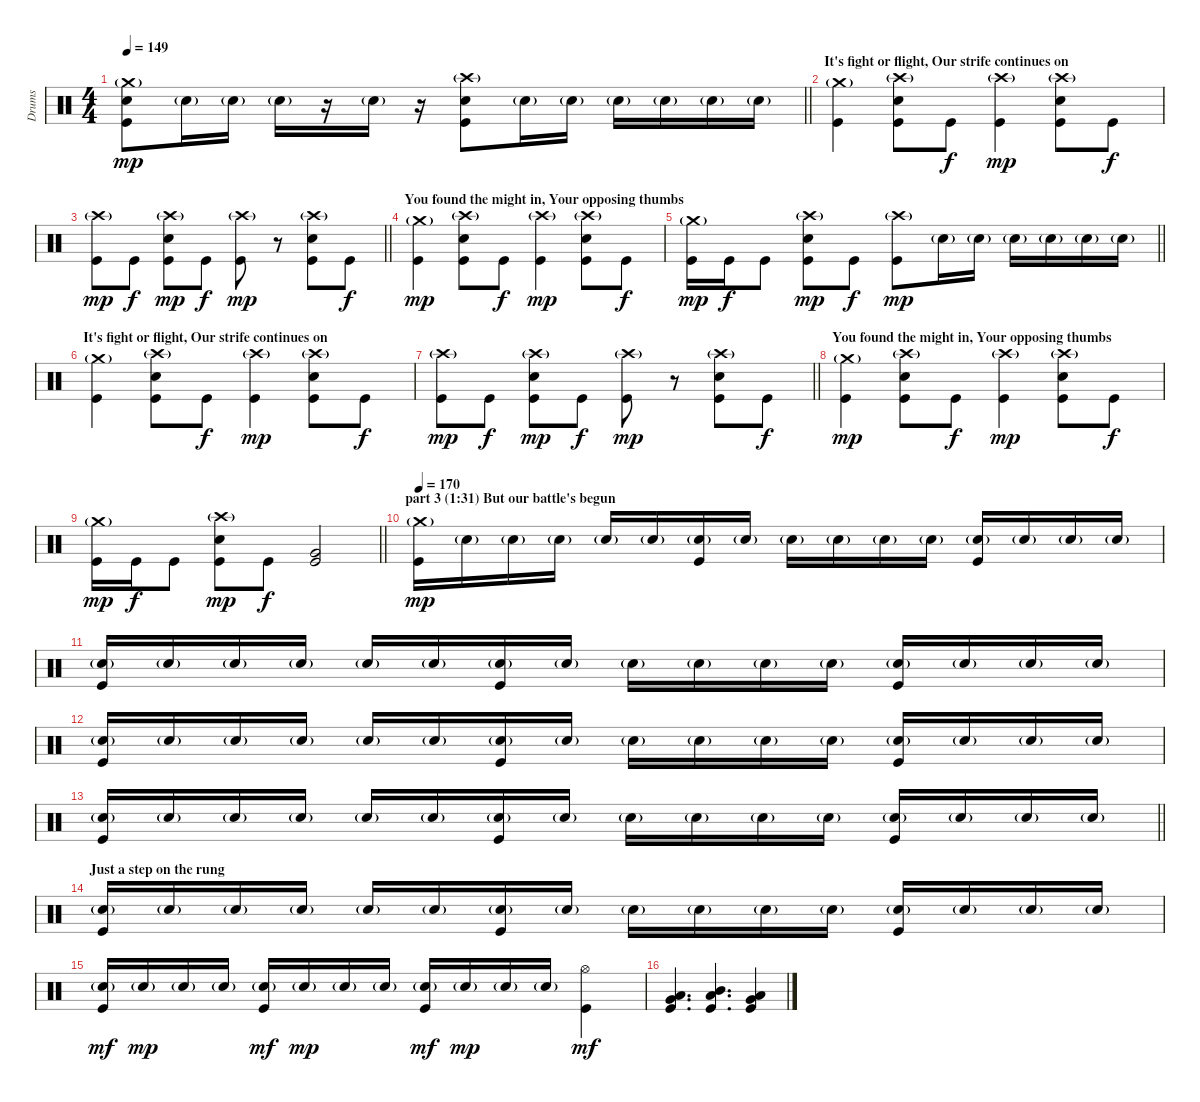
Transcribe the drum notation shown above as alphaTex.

\track ("Drums" "Drums") {instrument percussion}
\staff {score}
\articulation defaults
\ts (4 4)
\tempo 149
\clef neutral
\barLineRight lightlight
\ks c
("Crash medium (hit)"{g} "Snare (hit) 2" "Kick (hit)").8{dy mp} "Snare (hit) 2"{g}.16 "Snare (hit) 2"{g}.16 "Snare (hit) 2"{g}.16 r.16 "Snare (hit) 2"{g}.16 r.16 ("Crash high (hit)"{g} "Snare (hit) 2" "Kick (hit)").8 "Snare (hit) 2"{g}.16 "Snare (hit) 2"{g}.16 "Snare (hit) 2"{g}.16 "Snare (hit) 2"{g}.16 "Snare (hit) 2"{g}.16 "Snare (hit) 2"{g}.16 |
\section ("" "It's fight or flight, Our strife continues on ")
("Crash medium (hit)"{g} "Kick (hit)").4 ("Crash high (hit)"{g} "Snare (hit) 2" "Kick (hit)").8 "Kick (hit)".8{dy f} ("Crash high (hit)"{g} "Kick (hit)").4{dy mp} ("Crash high (hit)"{g} "Snare (hit) 2" "Kick (hit)").8 "Kick (hit)".8{dy f} |
\barLineRight lightlight
("Crash high (hit)"{g} "Kick (hit)").8{dy mp} "Kick (hit)".8{dy f} ("Crash high (hit)"{g} "Snare (hit) 2" "Kick (hit)").8{dy mp} "Kick (hit)".8{dy f} ("Crash high (hit)"{g} "Kick (hit)").8{dy mp} r.8 ("Crash high (hit)"{g} "Snare (hit) 2" "Kick (hit)").8 "Kick (hit)".8{dy f} |
\section ("" "You found the might in, Your opposing thumbs")
("Crash medium (hit)"{g} "Kick (hit)").4{dy mp} ("Crash high (hit)"{g} "Snare (hit) 2" "Kick (hit)").8 "Kick (hit)".8{dy f} ("Crash high (hit)"{g} "Kick (hit)").4{dy mp} ("Crash high (hit)"{g} "Snare (hit) 2" "Kick (hit)").8 "Kick (hit)".8{dy f} |
\barLineRight lightlight
("Crash medium (hit)"{g} "Kick (hit)").16{dy mp} "Kick (hit)".16{dy f} "Kick (hit)".8 ("Crash high (hit)"{g} "Snare (hit) 2" "Kick (hit)").8{dy mp} "Kick (hit)".8{dy f} ("Crash high (hit)"{g} "Kick (hit)").8{dy mp} "Snare (hit) 2"{g}.16 "Snare (hit) 2"{g}.16 "Snare (hit) 2"{g}.16 "Snare (hit) 2"{g}.16 "Snare (hit) 2"{g}.16 "Snare (hit) 2"{g}.16 |
\section ("" "It's fight or flight, Our strife continues on ")
("Crash medium (hit)"{g} "Kick (hit)").4 ("Crash high (hit)"{g} "Snare (hit) 2" "Kick (hit)").8 "Kick (hit)".8{dy f} ("Crash high (hit)"{g} "Kick (hit)").4{dy mp} ("Crash high (hit)"{g} "Snare (hit) 2" "Kick (hit)").8 "Kick (hit)".8{dy f} |
\barLineRight lightlight
("Crash high (hit)"{g} "Kick (hit)").8{dy mp} "Kick (hit)".8{dy f} ("Crash high (hit)"{g} "Snare (hit) 2" "Kick (hit)").8{dy mp} "Kick (hit)".8{dy f} ("Crash high (hit)"{g} "Kick (hit)").8{dy mp} r.8 ("Crash high (hit)"{g} "Snare (hit) 2" "Kick (hit)").8 "Kick (hit)".8{dy f} |
\section ("" "You found the might in, Your opposing thumbs")
("Crash medium (hit)"{g} "Kick (hit)").4{dy mp} ("Crash high (hit)"{g} "Snare (hit) 2" "Kick (hit)").8 "Kick (hit)".8{dy f} ("Crash high (hit)"{g} "Kick (hit)").4{dy mp} ("Crash high (hit)"{g} "Snare (hit) 2" "Kick (hit)").8 "Kick (hit)".8{dy f} |
\barLineRight lightlight
("Crash medium (hit)"{g} "Kick (hit)").16{dy mp} "Kick (hit)".16{dy f} "Kick (hit)".8 ("Crash high (hit)"{g} "Snare (hit) 2" "Kick (hit)").8{dy mp} "Kick (hit)".8{dy f} ("Very Low Tom (hit)" "Kick (hit)").2 |
\section ("" "part 3 (1:31) But our battle's begun")
\tempo 170
("Crash medium (hit)"{g} "Kick (hit)").16{dy mp} "Snare (hit) 2"{g}.16 "Snare (hit) 2"{g}.16 "Snare (hit) 2"{g}.16 "Snare (hit) 2"{g}.16 "Snare (hit) 2"{g}.16 ("Snare (hit) 2"{g} "Kick (hit)").16 "Snare (hit) 2"{g}.16 "Snare (hit) 2"{g}.16 "Snare (hit) 2"{g}.16 "Snare (hit) 2"{g}.16 "Snare (hit) 2"{g}.16 ("Snare (hit) 2"{g} "Kick (hit)").16 "Snare (hit) 2"{g}.16 "Snare (hit) 2"{g}.16 "Snare (hit) 2"{g}.16 |
("Snare (hit) 2"{g} "Kick (hit)").16 "Snare (hit) 2"{g}.16 "Snare (hit) 2"{g}.16 "Snare (hit) 2"{g}.16 "Snare (hit) 2"{g}.16 "Snare (hit) 2"{g}.16 ("Snare (hit) 2"{g} "Kick (hit)").16 "Snare (hit) 2"{g}.16 "Snare (hit) 2"{g}.16 "Snare (hit) 2"{g}.16 "Snare (hit) 2"{g}.16 "Snare (hit) 2"{g}.16 ("Snare (hit) 2"{g} "Kick (hit)").16 "Snare (hit) 2"{g}.16 "Snare (hit) 2"{g}.16 "Snare (hit) 2"{g}.16 |
("Snare (hit) 2"{g} "Kick (hit)").16 "Snare (hit) 2"{g}.16 "Snare (hit) 2"{g}.16 "Snare (hit) 2"{g}.16 "Snare (hit) 2"{g}.16 "Snare (hit) 2"{g}.16 ("Snare (hit) 2"{g} "Kick (hit)").16 "Snare (hit) 2"{g}.16 "Snare (hit) 2"{g}.16 "Snare (hit) 2"{g}.16 "Snare (hit) 2"{g}.16 "Snare (hit) 2"{g}.16 ("Snare (hit) 2"{g} "Kick (hit)").16 "Snare (hit) 2"{g}.16 "Snare (hit) 2"{g}.16 "Snare (hit) 2"{g}.16 |
\barLineRight lightlight
("Snare (hit) 2"{g} "Kick (hit)").16 "Snare (hit) 2"{g}.16 "Snare (hit) 2"{g}.16 "Snare (hit) 2"{g}.16 "Snare (hit) 2"{g}.16 "Snare (hit) 2"{g}.16 ("Snare (hit) 2"{g} "Kick (hit)").16 "Snare (hit) 2"{g}.16 "Snare (hit) 2"{g}.16 "Snare (hit) 2"{g}.16 "Snare (hit) 2"{g}.16 "Snare (hit) 2"{g}.16 ("Snare (hit) 2"{g} "Kick (hit)").16 "Snare (hit) 2"{g}.16 "Snare (hit) 2"{g}.16 "Snare (hit) 2"{g}.16 |
\section ("" "Just a step on the rung ")
("Snare (hit) 2"{g} "Kick (hit)").16 "Snare (hit) 2"{g}.16 "Snare (hit) 2"{g}.16 "Snare (hit) 2"{g}.16 "Snare (hit) 2"{g}.16 "Snare (hit) 2"{g}.16 ("Snare (hit) 2"{g} "Kick (hit)").16 "Snare (hit) 2"{g}.16 "Snare (hit) 2"{g}.16 "Snare (hit) 2"{g}.16 "Snare (hit) 2"{g}.16 "Snare (hit) 2"{g}.16 ("Snare (hit) 2"{g} "Kick (hit)").16 "Snare (hit) 2"{g}.16 "Snare (hit) 2"{g}.16 "Snare (hit) 2"{g}.16 |
("Snare (hit) 2"{g} "Kick (hit)").16{dy mf} "Snare (hit) 2"{g}.16{dy mp} "Snare (hit) 2"{g}.16 "Snare (hit) 2"{g}.16 ("Snare (hit) 2"{g} "Kick (hit)").16{dy mf} "Snare (hit) 2"{g}.16{dy mp} "Snare (hit) 2"{g}.16 "Snare (hit) 2"{g}.16 ("Snare (hit) 2"{g} "Kick (hit)").16{dy mf} "Snare (hit) 2"{g}.16{dy mp} "Snare (hit) 2"{g}.16 "Snare (hit) 2"{g}.16 ("Hi-Hat (open)" "Kick (hit)").4{dy mf} |
("Low Tom (hit)" "Very Low Tom (hit)" "Kick (hit)").4{d} ("Mid Tom (hit)" "Low Tom (hit)" "Kick (hit)").4{d} ("Low Tom (hit)" "Very Low Tom (hit)" "Kick (hit)").4
